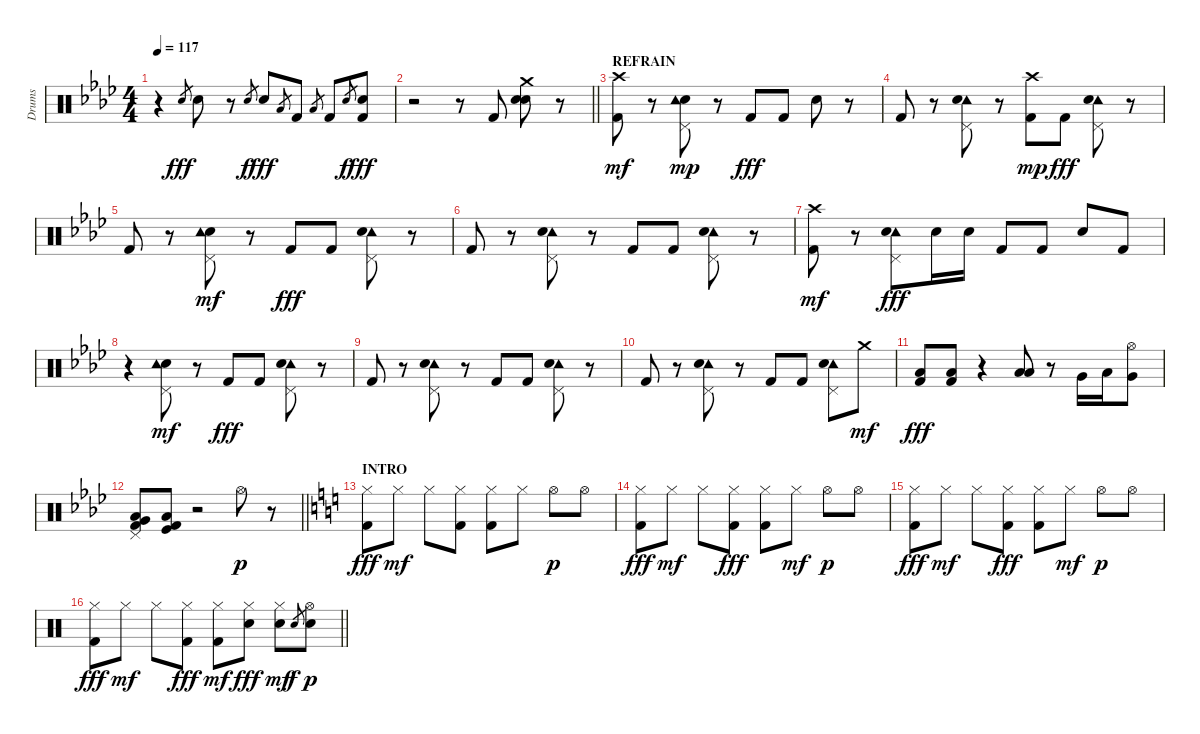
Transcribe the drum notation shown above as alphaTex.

\track ("Drums" "Drums") {instrument percussion}
\staff {score}
\articulation defaults
\ts (4 4)
\tempo 117
\clef neutral
\ks ab
r.4{dy mp} "Electric Snare (hit)".8{gr dy fff} "Snare (hit) 2".8 r.8 "Electric Snare (hit)".8{gr dy f} "Snare (hit) 2".8{dy fff} "Low Tom (hit)".8{gr} "Kick (hit) 2".8 "Low Floor Tom (hit)".8{gr} "Kick (hit) 2".8 "Electric Snare (hit)".8{gr dy f} ("Kick (hit) 2" "Snare (hit) 2").8{dy fff} |
\barLineRight lightlight
r.2 r.8 "Kick (hit) 2".8 ("Crash medium (hit)" "Electric Snare (hit)" "Snare (hit) 2").8 r.8 |
\section ("" "REFRAIN")
("Kick (hit) 2" "Crash high (hit)").8{dy mf} r.8 ("Pedal Hi-Hat (hit)" "Snare (hit) 2" "Tambourine (hit)").8{dy mp} r.8 "Kick (hit) 2".8{dy fff} "Kick (hit) 2".8 "Snare (hit) 2".8 r.8 |
"Kick (hit) 2".8 r.8 ("Tambourine (hit)" "Pedal Hi-Hat (hit)" "Snare (hit) 2").8 r.8 ("Kick (hit) 2" "Crash high (hit)").8{dy mp} "Kick (hit) 2".8{dy fff} ("Tambourine (hit)" "Pedal Hi-Hat (hit)" "Snare (hit) 2").8 r.8 |
"Kick (hit) 2".8 r.8 ("Snare (hit) 2" "Tambourine (hit)" "Pedal Hi-Hat (hit)").8{dy mf} r.8 "Kick (hit) 2".8{dy fff} "Kick (hit) 2".8 ("Tambourine (hit)" "Pedal Hi-Hat (hit)" "Snare (hit) 2").8 r.8 |
"Kick (hit) 2".8 r.8 ("Tambourine (hit)" "Pedal Hi-Hat (hit)" "Snare (hit) 2").8 r.8 "Kick (hit) 2".8 "Kick (hit) 2".8 ("Tambourine (hit)" "Pedal Hi-Hat (hit)" "Snare (hit) 2").8 r.8 |
("Kick (hit) 2" "Crash high (hit)").8{dy mf} r.8 ("Tambourine (hit)" "Pedal Hi-Hat (hit)" "Snare (hit) 2").8{dy fff} "Snare (hit) 2".16 "Snare (hit) 2".16 "Kick (hit) 2".8 "Kick (hit) 2".8 "Snare (hit) 2".8 "Kick (hit) 2".8 |
r.4 ("Snare (hit) 2" "Tambourine (hit)" "Pedal Hi-Hat (hit)").8{dy mf} r.8 "Kick (hit) 2".8{dy fff} "Kick (hit) 2".8 ("Tambourine (hit)" "Pedal Hi-Hat (hit)" "Snare (hit) 2").8 r.8 |
"Kick (hit) 2".8 r.8 ("Tambourine (hit)" "Pedal Hi-Hat (hit)" "Snare (hit) 2").8 r.8 "Kick (hit) 2".8 "Kick (hit) 2".8 ("Tambourine (hit)" "Pedal Hi-Hat (hit)" "Snare (hit) 2").8 r.8 |
"Kick (hit) 2".8 r.8 ("Tambourine (hit)" "Pedal Hi-Hat (hit)" "Snare (hit) 2").8 r.8 "Kick (hit) 2".8 "Kick (hit) 2".8 ("Tambourine (hit)" "Pedal Hi-Hat (hit)" "Snare (hit) 2").8 "Crash medium (hit)".8{dy mf} |
("Kick (hit) 2" "Low Floor Tom (hit)").8{dy fff} ("Kick (hit) 2" "Low Floor Tom (hit)").8 r.4 ("Low Floor Tom (hit)" "Low Floor Tom (hit)").8 r.8 "Very Low Tom (hit)".16 "Low Floor Tom (hit)".16 ("Hi-Hat (open)" "Very Low Tom (hit)").8 |
\barLineRight lightlight
("Pedal Hi-Hat (hit)" "Low Floor Tom (hit)" "Very Low Tom (hit)" "Kick (hit) 2").8 ("Low Floor Tom (hit)" "Kick (hit)" "Kick (hit) 2").8 r.2 "Hi-Hat (open)".8{dy p} r.8 |
\section ("" "INTRO")
\ks c
("Hi-Hat (closed)" "Kick (hit) 2").8{dy fff} "Hi-Hat (closed)".8{dy mf} "Hi-Hat (closed)".8 ("Kick (hit) 2" "Hi-Hat (closed)").8 ("Kick (hit) 2" "Hi-Hat (closed)").8 "Hi-Hat (closed)".8 "Hi-Hat (open)".8{dy p} "Hi-Hat (open)".8 |
("Hi-Hat (closed)" "Kick (hit) 2").8{dy fff} "Hi-Hat (closed)".8{dy mf} "Hi-Hat (closed)".8 ("Hi-Hat (closed)" "Kick (hit) 2").8{dy fff} ("Hi-Hat (closed)" "Kick (hit) 2").8 "Hi-Hat (closed)".8{dy mf} "Hi-Hat (open)".8{dy p} "Hi-Hat (open)".8 |
("Hi-Hat (closed)" "Kick (hit) 2").8{dy fff} "Hi-Hat (closed)".8{dy mf} "Hi-Hat (closed)".8 ("Hi-Hat (closed)" "Kick (hit) 2").8{dy fff} ("Hi-Hat (closed)" "Kick (hit) 2").8 "Hi-Hat (closed)".8{dy mf} "Hi-Hat (open)".8{dy p} "Hi-Hat (open)".8 |
\barLineRight lightlight
("Hi-Hat (closed)" "Kick (hit) 2").8{dy fff} "Hi-Hat (closed)".8{dy mf} "Hi-Hat (closed)".8 ("Hi-Hat (closed)" "Kick (hit) 2").8{dy fff} ("Kick (hit) 2" "Hi-Hat (closed)").8{dy mf} ("Hi-Hat (closed)" "Snare (hit) 2").8{dy fff} ("Snare (hit) 2" "Hi-Hat (closed)").8{dy mf} "Electric Snare (hit)".8{gr dy f} ("Snare (hit) 2" "Hi-Hat (open)").8{dy p}
